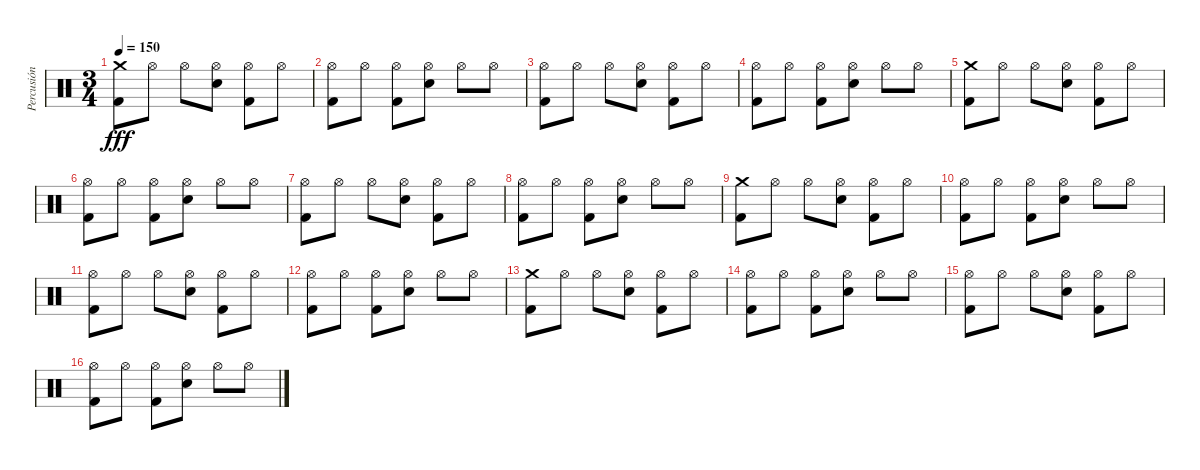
\track ("Percusión" "Percusión") {instrument percussion}
\staff {score}
\articulation defaults
\ts (3 4)
\tempo 150
\clef neutral
\ks c
("Crash medium (hit)" "Kick (hit) 2").8{dy fff} "Hi-Hat (open)".8 "Hi-Hat (open)".8 ("Hi-Hat (open)" "Snare (hit) 2").8 ("Hi-Hat (open)" "Kick (hit) 2").8 "Hi-Hat (open)".8 |
("Hi-Hat (open)" "Kick (hit) 2").8 "Hi-Hat (open)".8 ("Hi-Hat (open)" "Kick (hit) 2").8 ("Hi-Hat (open)" "Snare (hit) 2").8 "Hi-Hat (open)".8 "Hi-Hat (open)".8 |
("Hi-Hat (open)" "Kick (hit) 2").8 "Hi-Hat (open)".8 "Hi-Hat (open)".8 ("Hi-Hat (open)" "Snare (hit) 2").8 ("Hi-Hat (open)" "Kick (hit) 2").8 "Hi-Hat (open)".8 |
("Hi-Hat (open)" "Kick (hit) 2").8 "Hi-Hat (open)".8 ("Hi-Hat (open)" "Kick (hit) 2").8 ("Hi-Hat (open)" "Snare (hit) 2").8 "Hi-Hat (open)".8 "Hi-Hat (open)".8 |
("Crash medium (hit)" "Kick (hit) 2").8 "Hi-Hat (open)".8 "Hi-Hat (open)".8 ("Hi-Hat (open)" "Snare (hit) 2").8 ("Hi-Hat (open)" "Kick (hit) 2").8 "Hi-Hat (open)".8 |
("Hi-Hat (open)" "Kick (hit) 2").8 "Hi-Hat (open)".8 ("Hi-Hat (open)" "Kick (hit) 2").8 ("Hi-Hat (open)" "Snare (hit) 2").8 "Hi-Hat (open)".8 "Hi-Hat (open)".8 |
("Hi-Hat (open)" "Kick (hit) 2").8 "Hi-Hat (open)".8 "Hi-Hat (open)".8 ("Hi-Hat (open)" "Snare (hit) 2").8 ("Hi-Hat (open)" "Kick (hit) 2").8 "Hi-Hat (open)".8 |
("Hi-Hat (open)" "Kick (hit) 2").8 "Hi-Hat (open)".8 ("Hi-Hat (open)" "Kick (hit) 2").8 ("Hi-Hat (open)" "Snare (hit) 2").8 "Hi-Hat (open)".8 "Hi-Hat (open)".8 |
("Crash medium (hit)" "Kick (hit) 2").8 "Hi-Hat (open)".8 "Hi-Hat (open)".8 ("Hi-Hat (open)" "Snare (hit) 2").8 ("Hi-Hat (open)" "Kick (hit) 2").8 "Hi-Hat (open)".8 |
("Hi-Hat (open)" "Kick (hit) 2").8 "Hi-Hat (open)".8 ("Hi-Hat (open)" "Kick (hit) 2").8 ("Hi-Hat (open)" "Snare (hit) 2").8 "Hi-Hat (open)".8 "Hi-Hat (open)".8 |
("Hi-Hat (open)" "Kick (hit) 2").8 "Hi-Hat (open)".8 "Hi-Hat (open)".8 ("Hi-Hat (open)" "Snare (hit) 2").8 ("Hi-Hat (open)" "Kick (hit) 2").8 "Hi-Hat (open)".8 |
("Hi-Hat (open)" "Kick (hit) 2").8 "Hi-Hat (open)".8 ("Hi-Hat (open)" "Kick (hit) 2").8 ("Hi-Hat (open)" "Snare (hit) 2").8 "Hi-Hat (open)".8 "Hi-Hat (open)".8 |
("Crash medium (hit)" "Kick (hit) 2").8 "Hi-Hat (open)".8 "Hi-Hat (open)".8 ("Hi-Hat (open)" "Snare (hit) 2").8 ("Hi-Hat (open)" "Kick (hit) 2").8 "Hi-Hat (open)".8 |
("Hi-Hat (open)" "Kick (hit) 2").8 "Hi-Hat (open)".8 ("Hi-Hat (open)" "Kick (hit) 2").8 ("Hi-Hat (open)" "Snare (hit) 2").8 "Hi-Hat (open)".8 "Hi-Hat (open)".8 |
("Hi-Hat (open)" "Kick (hit) 2").8 "Hi-Hat (open)".8 "Hi-Hat (open)".8 ("Hi-Hat (open)" "Snare (hit) 2").8 ("Hi-Hat (open)" "Kick (hit) 2").8 "Hi-Hat (open)".8 |
("Hi-Hat (open)" "Kick (hit) 2").8 "Hi-Hat (open)".8 ("Hi-Hat (open)" "Kick (hit) 2").8 ("Hi-Hat (open)" "Snare (hit) 2").8 "Hi-Hat (open)".8 "Hi-Hat (open)".8
